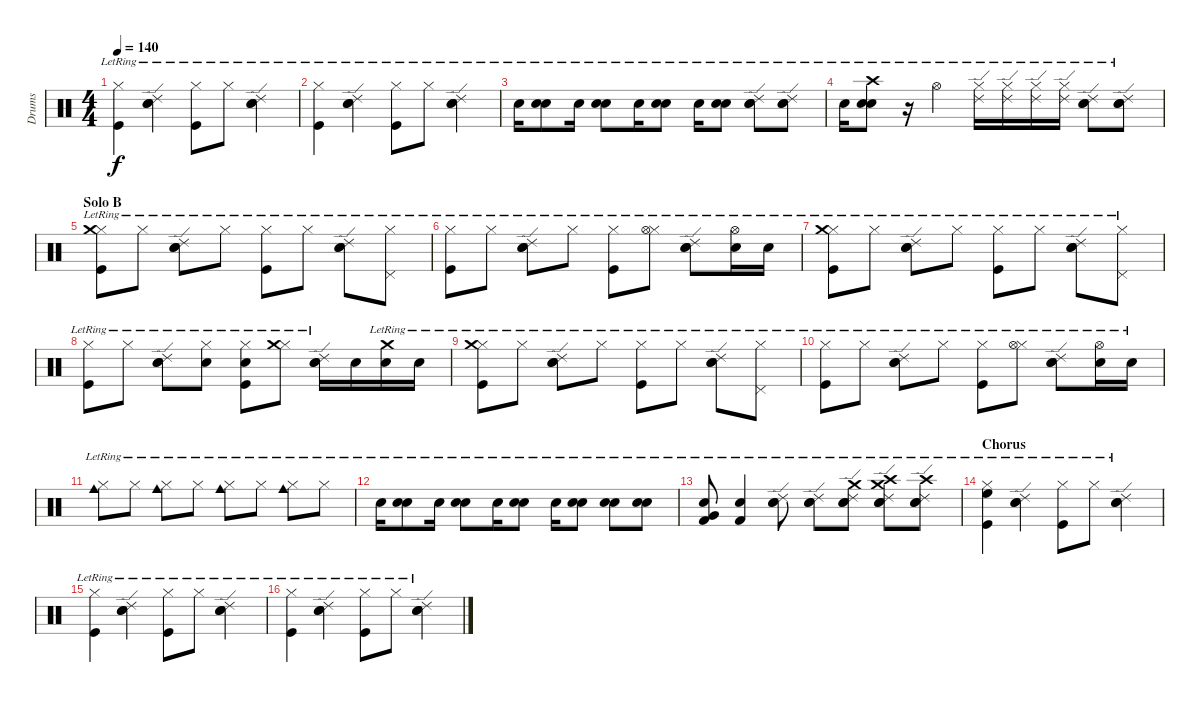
\track ("Drums" "Drums") {instrument percussion}
\staff {score}
\articulation defaults
\ts (4 4)
\tempo 140
\clef neutral
\ks c
("Hi-Hat (closed)"{lr} "Kick (hit)"{lr}).4{dy f} ("Electric Snare (hit)"{lr} "Ride (edge) 2"{lr} "Snare (hit) 2"{lr}).4 ("Hi-Hat (closed)"{lr} "Kick (hit)"{lr}).8 "Hi-Hat (closed)"{lr}.8 ("Electric Snare (hit)"{lr} "Ride (edge) 2"{lr} "Snare (hit) 2"{lr}).4 |
("Hi-Hat (closed)"{lr} "Kick (hit)"{lr}).4 ("Electric Snare (hit)"{lr} "Ride (edge) 2"{lr} "Snare (hit) 2"{lr}).4 ("Hi-Hat (closed)"{lr} "Kick (hit)"{lr}).8 "Hi-Hat (closed)"{lr}.8 ("Electric Snare (hit)"{lr} "Ride (edge) 2"{lr} "Snare (hit) 2"{lr}).4 |
"Snare (hit) 2"{lr}.16 ("Snare (hit) 2"{lr} "Electric Snare (hit)"{lr}).8 "Snare (hit) 2"{lr}.16 ("Snare (hit) 2"{lr} "Electric Snare (hit)"{lr}).8 "Snare (hit) 2"{lr}.16 ("Snare (hit) 2"{lr} "Electric Snare (hit)"{lr}).8 "Snare (hit) 2"{lr}.16 ("Snare (hit) 2"{lr} "Electric Snare (hit)"{lr}).8 ("Snare (hit) 2"{lr} "Electric Snare (hit)"{lr} "Ride (edge) 2"{lr}).8 ("Snare (hit) 2"{lr} "Electric Snare (hit)"{lr} "Ride (edge) 2"{lr}).8 |
"Snare (hit) 2"{lr}.16 ("Crash high (hit)"{lr} "Snare (hit) 2"{lr} "Electric Snare (hit)"{lr}).8 r.16 "Hi-Hat (open)"{lr}.4 ("Hi-Hat (closed)"{lr} "Ride (edge) 2"{lr}).16 ("Hi-Hat (closed)"{lr} "Ride (edge) 2"{lr}).16 ("Hi-Hat (closed)"{lr} "Ride (edge) 2"{lr}).16 ("Hi-Hat (closed)"{lr} "Ride (edge) 2"{lr}).16 ("Snare (hit) 2"{lr} "Electric Snare (hit)"{lr} "Ride (edge) 2"{lr}).8 ("Snare (hit) 2"{lr} "Electric Snare (hit)"{lr} "Ride (edge) 2"{lr}).8 |
\section ("" "Solo B")
("Hi-Hat (closed)"{lr} "Crash medium (hit)"{lr} "Kick (hit)"{lr}).8 "Hi-Hat (closed)"{lr}.8 ("Electric Snare (hit)"{lr} "Ride (edge) 2"{lr} "Snare (hit) 2"{lr}).8 "Hi-Hat (closed)"{lr}.8 ("Hi-Hat (closed)"{lr} "Kick (hit)"{lr}).8 "Hi-Hat (closed)"{lr}.8 ("Electric Snare (hit)"{lr} "Ride (edge) 2"{lr} "Snare (hit) 2"{lr}).8 ("Hi-Hat (closed)"{lr} "Pedal Hi-Hat (hit)"{lr}).8 |
("Hi-Hat (closed)"{lr} "Kick (hit)"{lr}).8 "Hi-Hat (closed)"{lr}.8 ("Electric Snare (hit)"{lr} "Ride (edge) 2"{lr} "Snare (hit) 2"{lr}).8 "Hi-Hat (closed)"{lr}.8 ("Hi-Hat (closed)"{lr} "Kick (hit)"{lr}).8 ("Hi-Hat (closed)"{lr} "Hi-Hat (open)"{lr}).8 ("Electric Snare (hit)"{lr} "Ride (edge) 2"{lr} "Snare (hit) 2"{lr}).8 ("Hi-Hat (open)"{lr} "Snare (hit) 2"{lr}).16 "Snare (hit) 2"{lr}.16 |
("Hi-Hat (closed)"{lr} "Crash medium (hit)"{lr} "Kick (hit)"{lr}).8 "Hi-Hat (closed)"{lr}.8 ("Electric Snare (hit)"{lr} "Ride (edge) 2"{lr} "Snare (hit) 2"{lr}).8 "Hi-Hat (closed)"{lr}.8 ("Hi-Hat (closed)"{lr} "Kick (hit)"{lr}).8 "Hi-Hat (closed)"{lr}.8 ("Electric Snare (hit)"{lr} "Ride (edge) 2"{lr} "Snare (hit) 2"{lr}).8 ("Hi-Hat (closed)"{lr} "Pedal Hi-Hat (hit)"{lr}).8 |
("Hi-Hat (closed)"{lr} "Kick (hit)"{lr}).8 "Hi-Hat (closed)"{lr}.8 ("Electric Snare (hit)" "Ride (edge) 2"{lr} "Snare (hit) 2").8 ("Hi-Hat (closed)"{lr} "Snare (hit) 2").8 ("Hi-Hat (closed)"{lr} "Electric Snare (hit)" "Kick (hit)"{lr}).8 ("Hi-Hat (closed)"{lr} "Crash medium (hit)"{lr}).8 ("Electric Snare (hit)"{lr} "Ride (edge) 2"{lr} "Snare (hit) 2"{lr}).16 "Snare (hit) 2".16 ("Crash medium (hit)"{lr} "Snare (hit) 2"{lr}).16 "Snare (hit) 2"{lr}.16 |
("Hi-Hat (closed)"{lr} "Crash medium (hit)"{lr} "Kick (hit)"{lr}).8 "Hi-Hat (closed)"{lr}.8 ("Electric Snare (hit)"{lr} "Ride (edge) 2"{lr} "Snare (hit) 2"{lr}).8 "Hi-Hat (closed)"{lr}.8 ("Hi-Hat (closed)"{lr} "Kick (hit)"{lr}).8 "Hi-Hat (closed)"{lr}.8 ("Electric Snare (hit)"{lr} "Ride (edge) 2"{lr} "Snare (hit) 2"{lr}).8 ("Hi-Hat (closed)"{lr} "Pedal Hi-Hat (hit)"{lr}).8 |
("Hi-Hat (closed)"{lr} "Kick (hit)"{lr}).8 "Hi-Hat (closed)"{lr}.8 ("Electric Snare (hit)"{lr} "Ride (edge) 2"{lr} "Snare (hit) 2"{lr}).8 "Hi-Hat (closed)"{lr}.8 ("Hi-Hat (closed)"{lr} "Kick (hit)"{lr}).8 ("Hi-Hat (closed)"{lr} "Hi-Hat (open)"{lr}).8 ("Electric Snare (hit)"{lr} "Ride (edge) 2"{lr} "Snare (hit) 2"{lr}).8 ("Hi-Hat (open)"{lr} "Snare (hit) 2"{lr}).16 "Snare (hit) 2"{lr}.16 |
("Hi-Hat (closed)"{lr} "Cowbell medium (hit)"{lr}).8 "Hi-Hat (closed)"{lr}.8 ("Hi-Hat (closed)"{lr} "Cowbell medium (hit)"{lr}).8 "Hi-Hat (closed)"{lr}.8 ("Hi-Hat (closed)"{lr} "Cowbell medium (hit)"{lr}).8 "Hi-Hat (closed)"{lr}.8 ("Hi-Hat (closed)"{lr} "Cowbell medium (hit)"{lr}).8 "Hi-Hat (closed)"{lr}.8 |
"Snare (hit) 2"{lr}.16 ("Snare (hit) 2"{lr} "Electric Snare (hit)"{lr}).8 "Snare (hit) 2"{lr}.16 ("Snare (hit) 2"{lr} "Electric Snare (hit)"{lr}).8 "Snare (hit) 2"{lr}.16 ("Snare (hit) 2"{lr} "Electric Snare (hit)"{lr}).8 "Snare (hit) 2"{lr}.16 ("Snare (hit) 2"{lr} "Electric Snare (hit)"{lr}).8 ("Snare (hit) 2"{lr} "Electric Snare (hit)"{lr}).8 ("Snare (hit) 2"{lr} "Electric Snare (hit)"{lr}).8 |
("Kick (hit) 2"{lr} "Very Low Tom (hit)" "Electric Snare (hit)"{lr}).8 ("Kick (hit) 2"{lr} "Electric Snare (hit)"{lr}).4 ("Snare (hit) 2"{lr} "Electric Snare (hit)"{lr} "Ride (edge) 2"{lr}).8 ("Snare (hit) 2"{lr} "Electric Snare (hit)"{lr} "Ride (edge) 2"{lr}).8 ("Snare (hit) 2"{lr} "Electric Snare (hit)"{lr} "Ride (edge) 2"{lr} "Crash medium (hit)").8 ("Snare (hit) 2"{lr} "Electric Snare (hit)"{lr} "Ride (edge) 2"{lr} "Crash high (hit)"{lr} "Crash medium (hit)").8 ("Snare (hit) 2"{lr} "Electric Snare (hit)"{lr} "Ride (edge) 2"{lr} "Crash high (hit)"{lr}).8 |
\section ("" "Chorus")
("Hi-Hat (closed)"{lr} "Kick (hit)"{lr} "High Floor Tom (hit)"{lr}).4 ("Electric Snare (hit)"{lr} "Ride (edge) 2"{lr} "Snare (hit) 2"{lr}).4 ("Hi-Hat (closed)"{lr} "Kick (hit)"{lr}).8 "Hi-Hat (closed)"{lr}.8 ("Electric Snare (hit)"{lr} "Ride (edge) 2"{lr} "Snare (hit) 2"{lr}).4 |
("Hi-Hat (closed)"{lr} "Kick (hit)"{lr}).4 ("Electric Snare (hit)"{lr} "Ride (edge) 2"{lr} "Snare (hit) 2"{lr}).4 ("Hi-Hat (closed)"{lr} "Kick (hit)"{lr}).8 "Hi-Hat (closed)"{lr}.8 ("Electric Snare (hit)"{lr} "Ride (edge) 2"{lr} "Snare (hit) 2"{lr}).4 |
("Hi-Hat (closed)"{lr} "Kick (hit)"{lr}).4 ("Electric Snare (hit)"{lr} "Ride (edge) 2"{lr} "Snare (hit) 2"{lr}).4 ("Hi-Hat (closed)"{lr} "Kick (hit)"{lr}).8 "Hi-Hat (closed)"{lr}.8 ("Electric Snare (hit)"{lr} "Ride (edge) 2"{lr} "Snare (hit) 2"{lr}).4
